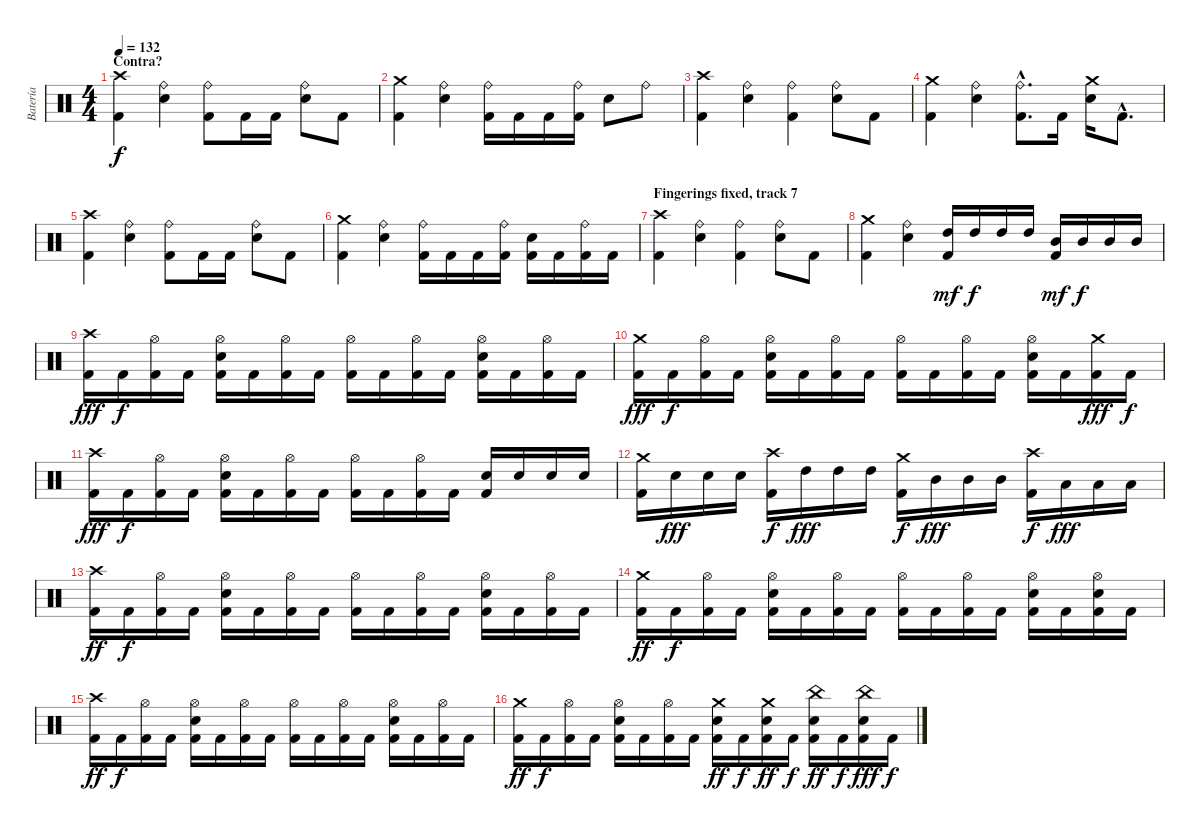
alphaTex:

\track ("Batería" "Batería") {instrument percussion}
\staff {score}
\articulation defaults
\ts (4 4)
\section ("" "Contra?")
\tempo 132
\clef neutral
\ks c
("Crash high (hit)" "Kick (hit) 2").4{dy f} ("Ride (bell)" "Snare (hit) 2").4 ("Ride (bell)" "Kick (hit) 2").8 "Kick (hit) 2".16 "Kick (hit) 2".16 ("Ride (bell)" "Snare (hit) 2").8 "Kick (hit) 2".8 |
("Crash medium (hit)" "Kick (hit) 2").4 ("Ride (bell)" "Snare (hit) 2").4 ("Ride (bell)" "Kick (hit) 2").16 "Kick (hit) 2".16 "Kick (hit) 2".16 ("Ride (bell)" "Kick (hit) 2").16 "Snare (hit) 2".8 "Ride (bell)".8 |
("Crash high (hit)" "Kick (hit) 2").4 ("Ride (bell)" "Snare (hit) 2").4 ("Ride (bell)" "Kick (hit) 2").4 ("Ride (bell)" "Snare (hit) 2").8 "Kick (hit) 2".8 |
("Crash medium (hit)" "Kick (hit) 2").4 ("Ride (bell)" "Snare (hit) 2").4 ("Ride (bell)"{hac} "Kick (hit) 2"{hac}).8{d} "Kick (hit) 2".16 ("Crash medium (hit)" "Snare (hit) 2").16 "Kick (hit) 2"{hac}.8{d} |
("Crash high (hit)" "Kick (hit) 2").4 ("Ride (bell)" "Snare (hit) 2").4 ("Ride (bell)" "Kick (hit) 2").8 "Kick (hit) 2".16 "Kick (hit) 2".16 ("Ride (bell)" "Snare (hit) 2").8 "Kick (hit) 2".8 |
("Crash medium (hit)" "Kick (hit) 2").4 ("Ride (bell)" "Snare (hit) 2").4 ("Ride (bell)" "Kick (hit) 2").16 "Kick (hit) 2".16 "Kick (hit) 2".16 ("Ride (bell)" "Kick (hit) 2").16 ("Kick (hit) 2" "Snare (hit) 2").16 "Kick (hit) 2".16 ("Ride (bell)" "Kick (hit) 2").16 "Kick (hit) 2".16 |
\section ("" "Fingerings fixed, track 7")
("Crash high (hit)" "Kick (hit) 2").4 ("Ride (bell)" "Snare (hit) 2").4 ("Ride (bell)" "Kick (hit) 2").4 ("Ride (bell)" "Snare (hit) 2").8 "Kick (hit) 2".8 |
("Crash medium (hit)" "Kick (hit) 2").4 ("Ride (bell)" "Snare (hit) 2").4 ("Kick (hit) 2" "High Tom (hit)").16{dy mf volume 16} "High Tom (hit)".16{dy f} "High Tom (hit)".16 "High Tom (hit)".16 ("Kick (hit) 2" "Mid Tom (hit)").16{dy mf} "Mid Tom (hit)".16{dy f} "Mid Tom (hit)".16 "Mid Tom (hit)".16 |
("Crash high (hit)" "Kick (hit) 2").16{dy fff volume 14} "Kick (hit) 2".16{dy f} ("Hi-Hat (open)" "Kick (hit) 2").16 "Kick (hit) 2".16 ("Hi-Hat (open)" "Kick (hit) 2" "Snare (hit) 2").16 "Kick (hit) 2".16 ("Hi-Hat (open)" "Kick (hit) 2").16 "Kick (hit) 2".16 ("Hi-Hat (open)" "Kick (hit) 2").16 "Kick (hit) 2".16 ("Hi-Hat (open)" "Kick (hit) 2").16 "Kick (hit) 2".16 ("Hi-Hat (open)" "Kick (hit) 2" "Snare (hit) 2").16 "Kick (hit) 2".16 ("Hi-Hat (open)" "Kick (hit) 2").16 "Kick (hit) 2".16 |
("Crash medium (hit)" "Kick (hit) 2").16{dy fff} "Kick (hit) 2".16{dy f} ("Hi-Hat (open)" "Kick (hit) 2").16 "Kick (hit) 2".16 ("Hi-Hat (open)" "Kick (hit) 2" "Snare (hit) 2").16 "Kick (hit) 2".16 ("Hi-Hat (open)" "Kick (hit) 2").16 "Kick (hit) 2".16 ("Hi-Hat (open)" "Kick (hit) 2").16 "Kick (hit) 2".16 ("Hi-Hat (open)" "Kick (hit) 2").16 "Kick (hit) 2".16 ("Hi-Hat (open)" "Kick (hit) 2" "Snare (hit) 2").16 "Kick (hit) 2".16 ("Crash medium (hit)" "Kick (hit) 2").16{dy fff} "Kick (hit) 2".16{dy f} |
("Crash high (hit)" "Kick (hit) 2").16{dy fff} "Kick (hit) 2".16{dy f} ("Hi-Hat (open)" "Kick (hit) 2").16 "Kick (hit) 2".16 ("Hi-Hat (open)" "Kick (hit) 2" "Snare (hit) 2").16 "Kick (hit) 2".16 ("Hi-Hat (open)" "Kick (hit) 2").16 "Kick (hit) 2".16 ("Hi-Hat (open)" "Kick (hit) 2").16 "Kick (hit) 2".16 ("Hi-Hat (open)" "Kick (hit) 2").16 "Kick (hit) 2".16 ("Kick (hit) 2" "Snare (hit) 2").16{volume 15} "Snare (hit) 2".16 "Snare (hit) 2".16 "Snare (hit) 2".16 |
("Crash medium (hit)" "Kick (hit) 2").16 "Snare (hit) 2".16{dy fff} "Snare (hit) 2".16 "Snare (hit) 2".16 ("Crash high (hit)" "Kick (hit) 2").16{dy f} "High Tom (hit)".16{dy fff} "High Tom (hit)".16 "High Tom (hit)".16 ("Crash medium (hit)" "Kick (hit) 2").16{dy f} "Mid Tom (hit)".16{dy fff} "Mid Tom (hit)".16 "Mid Tom (hit)".16 ("Crash high (hit)" "Kick (hit) 2").16{dy f} "Low Tom (hit)".16{dy fff} "Low Tom (hit)".16 "Low Tom (hit)".16 |
("Crash high (hit)" "Kick (hit) 2").16{dy ff volume 14} "Kick (hit) 2".16{dy f} ("Hi-Hat (open)" "Kick (hit) 2").16 "Kick (hit) 2".16 ("Hi-Hat (open)" "Kick (hit) 2" "Snare (hit) 2").16 "Kick (hit) 2".16 ("Hi-Hat (open)" "Kick (hit) 2").16 "Kick (hit) 2".16 ("Hi-Hat (open)" "Kick (hit) 2").16 "Kick (hit) 2".16 ("Hi-Hat (open)" "Kick (hit) 2").16 "Kick (hit) 2".16 ("Hi-Hat (open)" "Kick (hit) 2" "Snare (hit) 2").16 "Kick (hit) 2".16 ("Hi-Hat (open)" "Kick (hit) 2").16 "Kick (hit) 2".16 |
("Crash medium (hit)" "Kick (hit) 2").16{dy ff} "Kick (hit) 2".16{dy f} ("Hi-Hat (open)" "Kick (hit) 2").16 "Kick (hit) 2".16 ("Hi-Hat (open)" "Kick (hit) 2" "Snare (hit) 2").16 "Kick (hit) 2".16 ("Hi-Hat (open)" "Kick (hit) 2").16 "Kick (hit) 2".16 ("Hi-Hat (open)" "Kick (hit) 2").16 "Kick (hit) 2".16 ("Hi-Hat (open)" "Kick (hit) 2").16 "Kick (hit) 2".16 ("Hi-Hat (open)" "Kick (hit) 2" "Snare (hit) 2").16 "Kick (hit) 2".16 ("Hi-Hat (open)" "Kick (hit) 2" "Snare (hit) 2").16 "Kick (hit) 2".16 |
("Crash high (hit)" "Kick (hit) 2").16{dy ff} "Kick (hit) 2".16{dy f} ("Hi-Hat (open)" "Kick (hit) 2").16 "Kick (hit) 2".16 ("Hi-Hat (open)" "Kick (hit) 2" "Snare (hit) 2").16 "Kick (hit) 2".16 ("Hi-Hat (open)" "Kick (hit) 2").16 "Kick (hit) 2".16 ("Hi-Hat (open)" "Kick (hit) 2").16 "Kick (hit) 2".16 ("Hi-Hat (open)" "Kick (hit) 2").16 "Kick (hit) 2".16 ("Hi-Hat (open)" "Kick (hit) 2" "Snare (hit) 2").16 "Kick (hit) 2".16 ("Hi-Hat (open)" "Kick (hit) 2").16 "Kick (hit) 2".16 |
("Crash medium (hit)" "Kick (hit) 2").16{dy ff} "Kick (hit) 2".16{dy f} ("Hi-Hat (open)" "Kick (hit) 2").16 "Kick (hit) 2".16 ("Hi-Hat (open)" "Kick (hit) 2" "Snare (hit) 2").16 "Kick (hit) 2".16 ("Hi-Hat (open)" "Kick (hit) 2").16 "Kick (hit) 2".16 ("Crash medium (hit)" "Kick (hit) 2" "Snare (hit) 2").16{dy ff} "Kick (hit) 2".16{dy f} ("Crash medium (hit)" "Kick (hit) 2" "Snare (hit) 2").16{dy ff} "Kick (hit) 2".16{dy f} ("China (hit)" "Kick (hit) 2" "Snare (hit) 2").16{dy ff} "Kick (hit) 2".16{dy f} ("China (hit)" "Kick (hit) 2" "Snare (hit) 2").16{dy fff} "Kick (hit) 2".16{dy f}
